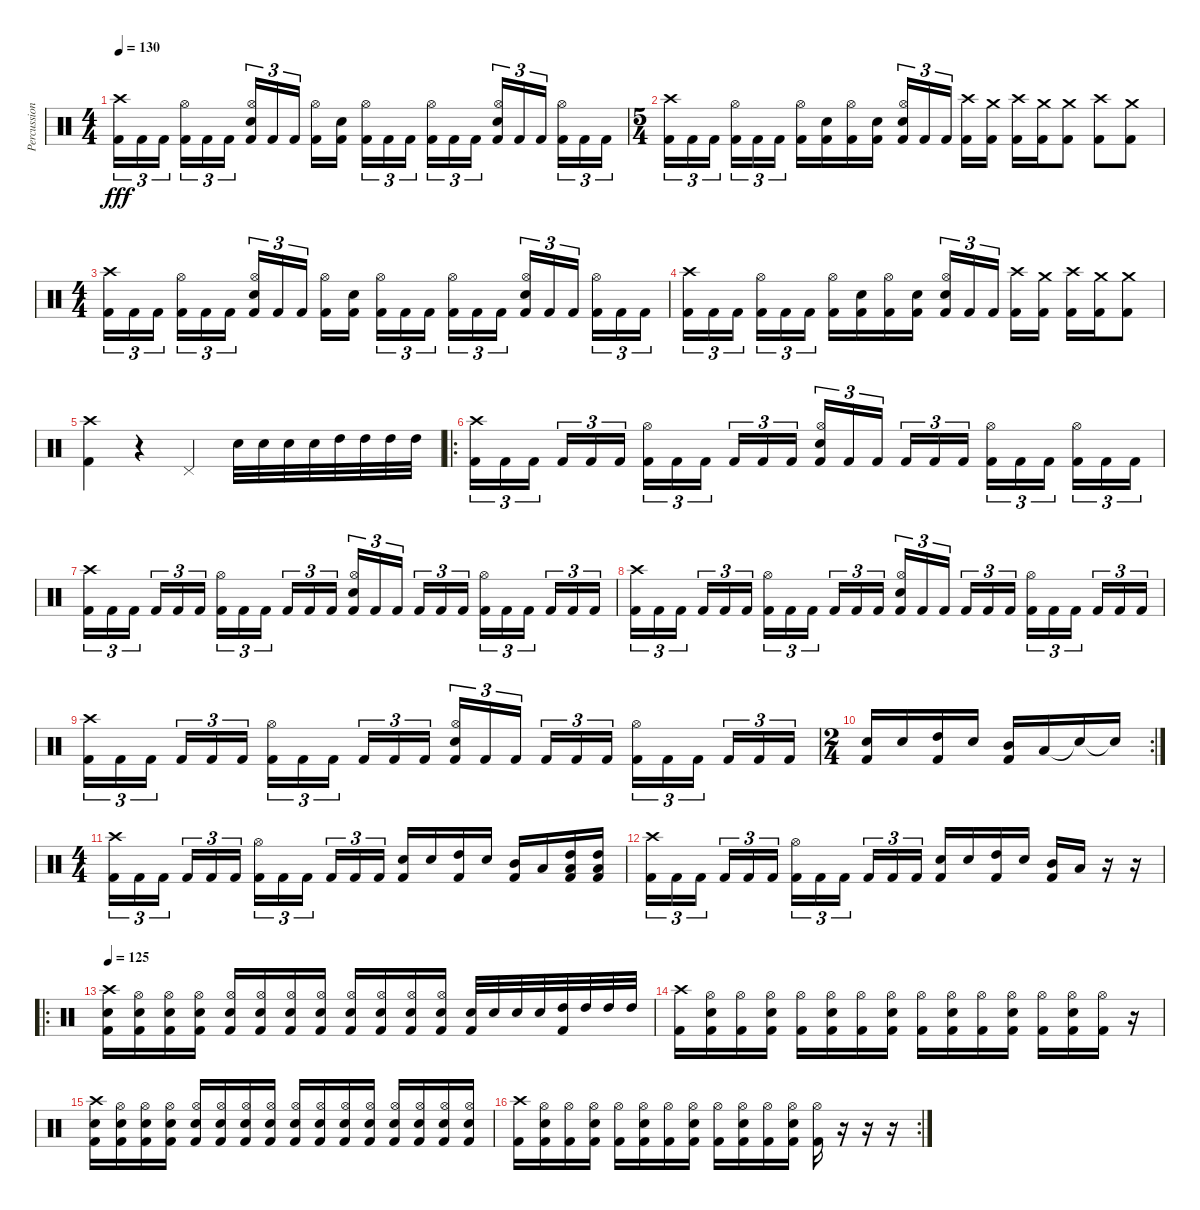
\track ("Percussion" "Percussion") {instrument percussion}
\staff {score}
\articulation defaults
\ts (4 4)
\tempo 130
\clef neutral
\ks c
("Crash high (hit)" "Kick (hit) 2").16{tu (3 2) dy fff} "Kick (hit) 2".16{tu (3 2)} "Kick (hit) 2".16{tu (3 2) beam splitsecondary} ("Hi-Hat (open)" "Kick (hit) 2").16{tu (3 2)} "Kick (hit) 2".16{tu (3 2)} "Kick (hit) 2".16{tu (3 2)} ("Electric Snare (hit)" "Hi-Hat (open)" "Kick (hit) 2").16{tu (3 2)} "Kick (hit) 2".16{tu (3 2)} "Kick (hit) 2".16{tu (3 2) beam splitsecondary} ("Hi-Hat (open)" "Kick (hit) 2").16 ("Electric Snare (hit)" "Kick (hit) 2").16 ("Hi-Hat (open)" "Kick (hit) 2").16{tu (3 2)} "Kick (hit) 2".16{tu (3 2)} "Kick (hit) 2".16{tu (3 2) beam splitsecondary} ("Hi-Hat (open)" "Kick (hit) 2").16{tu (3 2)} "Kick (hit) 2".16{tu (3 2)} "Kick (hit) 2".16{tu (3 2)} ("Electric Snare (hit)" "Hi-Hat (open)" "Kick (hit) 2").16{tu (3 2)} "Kick (hit) 2".16{tu (3 2)} "Kick (hit) 2".16{tu (3 2) beam splitsecondary} ("Hi-Hat (open)" "Kick (hit) 2").16{tu (3 2)} "Kick (hit) 2".16{tu (3 2)} "Kick (hit) 2".16{tu (3 2)} |
\ts (5 4)
("Crash high (hit)" "Kick (hit) 2").16{tu (3 2)} "Kick (hit) 2".16{tu (3 2)} "Kick (hit) 2".16{tu (3 2) beam splitsecondary} ("Hi-Hat (open)" "Kick (hit) 2").16{tu (3 2)} "Kick (hit) 2".16{tu (3 2)} "Kick (hit) 2".16{tu (3 2)} ("Hi-Hat (open)" "Kick (hit) 2").16 ("Electric Snare (hit)" "Kick (hit) 2").16 ("Hi-Hat (open)" "Kick (hit) 2").16 ("Electric Snare (hit)" "Kick (hit) 2").16 ("Electric Snare (hit)" "Hi-Hat (open)" "Kick (hit) 2").16{tu (3 2)} "Kick (hit) 2".16{tu (3 2)} "Kick (hit) 2".16{tu (3 2) beam splitsecondary} ("Crash high (hit)" "Kick (hit) 2").16 ("Crash medium (hit)" "Kick (hit) 2").16 ("Crash high (hit)" "Kick (hit) 2").16 ("Crash medium (hit)" "Kick (hit) 2").16 ("Crash medium (hit)" "Kick (hit) 2").8 ("Crash high (hit)" "Kick (hit) 2").8 ("Crash medium (hit)" "Kick (hit) 2").8 |
\ts (4 4)
("Crash high (hit)" "Kick (hit) 2").16{tu (3 2)} "Kick (hit) 2".16{tu (3 2)} "Kick (hit) 2".16{tu (3 2) beam splitsecondary} ("Hi-Hat (open)" "Kick (hit) 2").16{tu (3 2)} "Kick (hit) 2".16{tu (3 2)} "Kick (hit) 2".16{tu (3 2)} ("Electric Snare (hit)" "Hi-Hat (open)" "Kick (hit) 2").16{tu (3 2)} "Kick (hit) 2".16{tu (3 2)} "Kick (hit) 2".16{tu (3 2) beam splitsecondary} ("Hi-Hat (open)" "Kick (hit) 2").16 ("Electric Snare (hit)" "Kick (hit) 2").16 ("Hi-Hat (open)" "Kick (hit) 2").16{tu (3 2)} "Kick (hit) 2".16{tu (3 2)} "Kick (hit) 2".16{tu (3 2) beam splitsecondary} ("Hi-Hat (open)" "Kick (hit) 2").16{tu (3 2)} "Kick (hit) 2".16{tu (3 2)} "Kick (hit) 2".16{tu (3 2)} ("Electric Snare (hit)" "Hi-Hat (open)" "Kick (hit) 2").16{tu (3 2)} "Kick (hit) 2".16{tu (3 2)} "Kick (hit) 2".16{tu (3 2) beam splitsecondary} ("Hi-Hat (open)" "Kick (hit) 2").16{tu (3 2)} "Kick (hit) 2".16{tu (3 2)} "Kick (hit) 2".16{tu (3 2)} |
("Crash high (hit)" "Kick (hit) 2").16{tu (3 2)} "Kick (hit) 2".16{tu (3 2)} "Kick (hit) 2".16{tu (3 2) beam splitsecondary} ("Hi-Hat (open)" "Kick (hit) 2").16{tu (3 2)} "Kick (hit) 2".16{tu (3 2)} "Kick (hit) 2".16{tu (3 2)} ("Hi-Hat (open)" "Kick (hit) 2").16 ("Electric Snare (hit)" "Kick (hit) 2").16 ("Hi-Hat (open)" "Kick (hit) 2").16 ("Electric Snare (hit)" "Kick (hit) 2").16 ("Electric Snare (hit)" "Hi-Hat (open)" "Kick (hit) 2").16{tu (3 2)} "Kick (hit) 2".16{tu (3 2)} "Kick (hit) 2".16{tu (3 2) beam splitsecondary} ("Crash high (hit)" "Kick (hit) 2").16 ("Crash medium (hit)" "Kick (hit) 2").16 ("Crash high (hit)" "Kick (hit) 2").16 ("Crash medium (hit)" "Kick (hit) 2").16 ("Crash medium (hit)" "Kick (hit) 2").8 |
("Crash high (hit)" "Kick (hit) 2").4 r.4 "Pedal Hi-Hat (hit)".4 "Electric Snare (hit)".32 "Electric Snare (hit)".32 "Electric Snare (hit)".32 "Electric Snare (hit)".32 "High Tom (hit)".32 "High Tom (hit)".32 "High Tom (hit)".32 "High Tom (hit)".32 |
\ro
("Crash high (hit)" "Kick (hit) 2").16{tu (3 2)} "Kick (hit) 2".16{tu (3 2)} "Kick (hit) 2".16{tu (3 2) beam splitsecondary} "Kick (hit) 2".16{tu (3 2)} "Kick (hit) 2".16{tu (3 2)} "Kick (hit) 2".16{tu (3 2)} ("Hi-Hat (open)" "Kick (hit) 2").16{tu (3 2)} "Kick (hit) 2".16{tu (3 2)} "Kick (hit) 2".16{tu (3 2) beam splitsecondary} "Kick (hit) 2".16{tu (3 2)} "Kick (hit) 2".16{tu (3 2)} "Kick (hit) 2".16{tu (3 2)} ("Electric Snare (hit)" "Hi-Hat (open)" "Kick (hit) 2").16{tu (3 2)} "Kick (hit) 2".16{tu (3 2)} "Kick (hit) 2".16{tu (3 2) beam splitsecondary} "Kick (hit) 2".16{tu (3 2)} "Kick (hit) 2".16{tu (3 2)} "Kick (hit) 2".16{tu (3 2)} ("Hi-Hat (open)" "Kick (hit) 2").16{tu (3 2)} "Kick (hit) 2".16{tu (3 2)} "Kick (hit) 2".16{tu (3 2) beam splitsecondary} ("Hi-Hat (open)" "Kick (hit) 2").16{tu (3 2)} "Kick (hit) 2".16{tu (3 2)} "Kick (hit) 2".16{tu (3 2)} |
("Crash high (hit)" "Kick (hit) 2").16{tu (3 2)} "Kick (hit) 2".16{tu (3 2)} "Kick (hit) 2".16{tu (3 2) beam splitsecondary} "Kick (hit) 2".16{tu (3 2)} "Kick (hit) 2".16{tu (3 2)} "Kick (hit) 2".16{tu (3 2)} ("Hi-Hat (open)" "Kick (hit) 2").16{tu (3 2)} "Kick (hit) 2".16{tu (3 2)} "Kick (hit) 2".16{tu (3 2) beam splitsecondary} "Kick (hit) 2".16{tu (3 2)} "Kick (hit) 2".16{tu (3 2)} "Kick (hit) 2".16{tu (3 2)} ("Electric Snare (hit)" "Hi-Hat (open)" "Kick (hit) 2").16{tu (3 2)} "Kick (hit) 2".16{tu (3 2)} "Kick (hit) 2".16{tu (3 2) beam splitsecondary} "Kick (hit) 2".16{tu (3 2)} "Kick (hit) 2".16{tu (3 2)} "Kick (hit) 2".16{tu (3 2)} ("Hi-Hat (open)" "Kick (hit) 2").16{tu (3 2)} "Kick (hit) 2".16{tu (3 2)} "Kick (hit) 2".16{tu (3 2) beam splitsecondary} "Kick (hit) 2".16{tu (3 2)} "Kick (hit) 2".16{tu (3 2)} "Kick (hit) 2".16{tu (3 2)} |
("Crash high (hit)" "Kick (hit) 2").16{tu (3 2)} "Kick (hit) 2".16{tu (3 2)} "Kick (hit) 2".16{tu (3 2) beam splitsecondary} "Kick (hit) 2".16{tu (3 2)} "Kick (hit) 2".16{tu (3 2)} "Kick (hit) 2".16{tu (3 2)} ("Hi-Hat (open)" "Kick (hit) 2").16{tu (3 2)} "Kick (hit) 2".16{tu (3 2)} "Kick (hit) 2".16{tu (3 2) beam splitsecondary} "Kick (hit) 2".16{tu (3 2)} "Kick (hit) 2".16{tu (3 2)} "Kick (hit) 2".16{tu (3 2)} ("Electric Snare (hit)" "Hi-Hat (open)" "Kick (hit) 2").16{tu (3 2)} "Kick (hit) 2".16{tu (3 2)} "Kick (hit) 2".16{tu (3 2) beam splitsecondary} "Kick (hit) 2".16{tu (3 2)} "Kick (hit) 2".16{tu (3 2)} "Kick (hit) 2".16{tu (3 2)} ("Hi-Hat (open)" "Kick (hit) 2").16{tu (3 2)} "Kick (hit) 2".16{tu (3 2)} "Kick (hit) 2".16{tu (3 2) beam splitsecondary} "Kick (hit) 2".16{tu (3 2)} "Kick (hit) 2".16{tu (3 2)} "Kick (hit) 2".16{tu (3 2)} |
("Crash high (hit)" "Kick (hit) 2").16{tu (3 2)} "Kick (hit) 2".16{tu (3 2)} "Kick (hit) 2".16{tu (3 2) beam splitsecondary} "Kick (hit) 2".16{tu (3 2)} "Kick (hit) 2".16{tu (3 2)} "Kick (hit) 2".16{tu (3 2)} ("Hi-Hat (open)" "Kick (hit) 2").16{tu (3 2)} "Kick (hit) 2".16{tu (3 2)} "Kick (hit) 2".16{tu (3 2) beam splitsecondary} "Kick (hit) 2".16{tu (3 2)} "Kick (hit) 2".16{tu (3 2)} "Kick (hit) 2".16{tu (3 2)} ("Electric Snare (hit)" "Hi-Hat (open)" "Kick (hit) 2").16{tu (3 2)} "Kick (hit) 2".16{tu (3 2)} "Kick (hit) 2".16{tu (3 2) beam splitsecondary} "Kick (hit) 2".16{tu (3 2)} "Kick (hit) 2".16{tu (3 2)} "Kick (hit) 2".16{tu (3 2)} ("Hi-Hat (open)" "Kick (hit) 2").16{tu (3 2)} "Kick (hit) 2".16{tu (3 2)} "Kick (hit) 2".16{tu (3 2) beam splitsecondary} "Kick (hit) 2".16{tu (3 2)} "Kick (hit) 2".16{tu (3 2)} "Kick (hit) 2".16{tu (3 2)} |
\rc 2
\ts (2 4)
("Kick (hit) 2" "Electric Snare (hit)").16 "Electric Snare (hit)".16 ("Kick (hit) 2" "High Tom (hit)").16 "Electric Snare (hit)".16 ("Kick (hit) 2" "Mid Tom (hit)").16 "Low Tom (hit)".16 "Snare (hit)"{t}.16 "Snare (hit)"{t}.16 |
\ts (4 4)
("Crash high (hit)" "Kick (hit) 2").16{tu (3 2)} "Kick (hit) 2".16{tu (3 2)} "Kick (hit) 2".16{tu (3 2) beam splitsecondary} "Kick (hit) 2".16{tu (3 2)} "Kick (hit) 2".16{tu (3 2)} "Kick (hit) 2".16{tu (3 2)} ("Hi-Hat (open)" "Kick (hit) 2").16{tu (3 2)} "Kick (hit) 2".16{tu (3 2)} "Kick (hit) 2".16{tu (3 2) beam splitsecondary} "Kick (hit) 2".16{tu (3 2)} "Kick (hit) 2".16{tu (3 2)} "Kick (hit) 2".16{tu (3 2)} ("Kick (hit) 2" "Electric Snare (hit)").16 "Electric Snare (hit)".16 ("Kick (hit) 2" "High Tom (hit)").16 "Electric Snare (hit)".16 ("Kick (hit) 2" "Mid Tom (hit)").16 "Low Tom (hit)".16 ("Kick (hit) 2" "Low Tom (hit)" "High Tom (hit)").16 ("Kick (hit) 2" "Low Tom (hit)" "High Tom (hit)").16 |
("Crash high (hit)" "Kick (hit) 2").16{tu (3 2)} "Kick (hit) 2".16{tu (3 2)} "Kick (hit) 2".16{tu (3 2) beam splitsecondary} "Kick (hit) 2".16{tu (3 2)} "Kick (hit) 2".16{tu (3 2)} "Kick (hit) 2".16{tu (3 2)} ("Hi-Hat (open)" "Kick (hit) 2").16{tu (3 2)} "Kick (hit) 2".16{tu (3 2)} "Kick (hit) 2".16{tu (3 2) beam splitsecondary} "Kick (hit) 2".16{tu (3 2)} "Kick (hit) 2".16{tu (3 2)} "Kick (hit) 2".16{tu (3 2)} ("Kick (hit) 2" "Electric Snare (hit)").16 "Electric Snare (hit)".16 ("Kick (hit) 2" "High Tom (hit)").16 "Electric Snare (hit)".16 ("Kick (hit) 2" "Mid Tom (hit)").16 "Low Tom (hit)".16 r.16 r.16 |
\ro
\tempo 125
("Electric Snare (hit)" "Crash high (hit)" "Kick (hit) 2").16 ("Electric Snare (hit)" "Hi-Hat (open)" "Kick (hit) 2").16 ("Electric Snare (hit)" "Hi-Hat (open)" "Kick (hit) 2").16 ("Electric Snare (hit)" "Hi-Hat (open)" "Kick (hit) 2").16 ("Electric Snare (hit)" "Hi-Hat (open)" "Kick (hit) 2").16 ("Electric Snare (hit)" "Hi-Hat (open)" "Kick (hit) 2").16 ("Electric Snare (hit)" "Hi-Hat (open)" "Kick (hit) 2").16 ("Electric Snare (hit)" "Hi-Hat (open)" "Kick (hit) 2").16 ("Electric Snare (hit)" "Hi-Hat (open)" "Kick (hit) 2").16 ("Electric Snare (hit)" "Hi-Hat (open)" "Kick (hit) 2").16 ("Electric Snare (hit)" "Hi-Hat (open)" "Kick (hit) 2").16 ("Electric Snare (hit)" "Hi-Hat (open)" "Kick (hit) 2").16 ("Electric Snare (hit)" "Kick (hit) 2").32 "Electric Snare (hit)".32 "Electric Snare (hit)".32 "Electric Snare (hit)".32 ("High Tom (hit)" "Kick (hit) 2").32 "High Tom (hit)".32 "High Tom (hit)".32 "High Tom (hit)".32 |
("Crash high (hit)" "Kick (hit) 2").16 ("Electric Snare (hit)" "Hi-Hat (open)" "Kick (hit) 2").16 ("Hi-Hat (open)" "Kick (hit) 2").16 ("Electric Snare (hit)" "Hi-Hat (open)" "Kick (hit) 2").16 ("Hi-Hat (open)" "Kick (hit) 2").16 ("Electric Snare (hit)" "Hi-Hat (open)" "Kick (hit) 2").16 ("Hi-Hat (open)" "Kick (hit) 2").16 ("Electric Snare (hit)" "Hi-Hat (open)" "Kick (hit) 2").16 ("Hi-Hat (open)" "Kick (hit) 2").16 ("Electric Snare (hit)" "Hi-Hat (open)" "Kick (hit) 2").16 ("Hi-Hat (open)" "Kick (hit) 2").16 ("Electric Snare (hit)" "Hi-Hat (open)" "Kick (hit) 2").16 ("Hi-Hat (open)" "Kick (hit) 2").16 ("Electric Snare (hit)" "Hi-Hat (open)" "Kick (hit) 2").16 ("Hi-Hat (open)" "Kick (hit) 2").16 r.16 |
("Electric Snare (hit)" "Crash high (hit)" "Kick (hit) 2").16 ("Electric Snare (hit)" "Hi-Hat (open)" "Kick (hit) 2").16 ("Electric Snare (hit)" "Hi-Hat (open)" "Kick (hit) 2").16 ("Electric Snare (hit)" "Hi-Hat (open)" "Kick (hit) 2").16 ("Electric Snare (hit)" "Hi-Hat (open)" "Kick (hit) 2").16 ("Electric Snare (hit)" "Hi-Hat (open)" "Kick (hit) 2").16 ("Electric Snare (hit)" "Hi-Hat (open)" "Kick (hit) 2").16 ("Electric Snare (hit)" "Hi-Hat (open)" "Kick (hit) 2").16 ("Electric Snare (hit)" "Hi-Hat (open)" "Kick (hit) 2").16 ("Electric Snare (hit)" "Hi-Hat (open)" "Kick (hit) 2").16 ("Electric Snare (hit)" "Hi-Hat (open)" "Kick (hit) 2").16 ("Electric Snare (hit)" "Hi-Hat (open)" "Kick (hit) 2").16 ("Electric Snare (hit)" "Hi-Hat (open)" "Kick (hit) 2").16 ("Electric Snare (hit)" "Hi-Hat (open)" "Kick (hit) 2").16 ("Electric Snare (hit)" "Hi-Hat (open)" "Kick (hit) 2").16 ("Electric Snare (hit)" "Hi-Hat (open)" "Kick (hit) 2").16 |
\rc 2
("Crash high (hit)" "Kick (hit) 2").16 ("Electric Snare (hit)" "Hi-Hat (open)" "Kick (hit) 2").16 ("Hi-Hat (open)" "Kick (hit) 2").16 ("Electric Snare (hit)" "Hi-Hat (open)" "Kick (hit) 2").16 ("Hi-Hat (open)" "Kick (hit) 2").16 ("Electric Snare (hit)" "Hi-Hat (open)" "Kick (hit) 2").16 ("Hi-Hat (open)" "Kick (hit) 2").16 ("Electric Snare (hit)" "Hi-Hat (open)" "Kick (hit) 2").16 ("Hi-Hat (open)" "Kick (hit) 2").16 ("Electric Snare (hit)" "Hi-Hat (open)" "Kick (hit) 2").16 ("Hi-Hat (open)" "Kick (hit) 2").16 ("Electric Snare (hit)" "Hi-Hat (open)" "Kick (hit) 2").16 ("Hi-Hat (open)" "Kick (hit) 2").16 r.16 r.16 r.16
